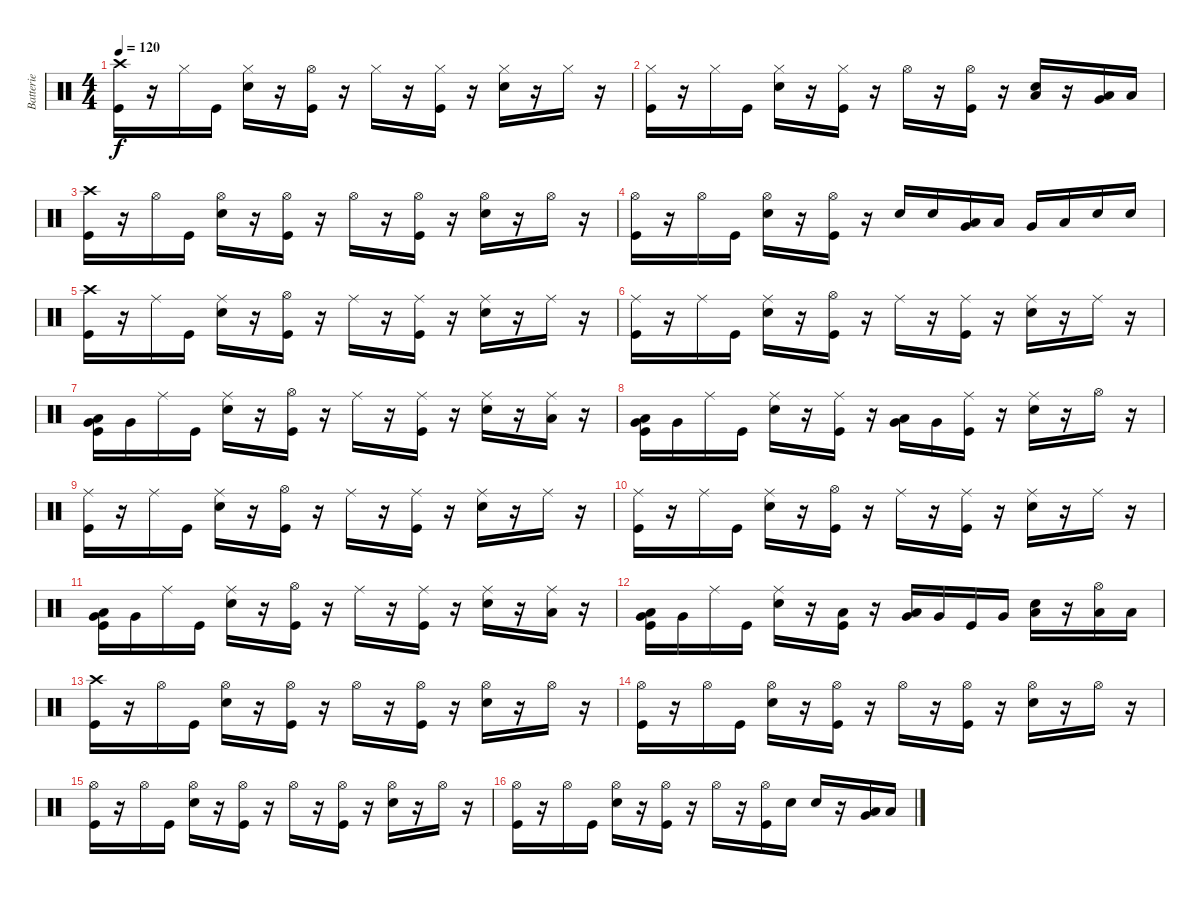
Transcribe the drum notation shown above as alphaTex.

\track ("Batterie" "Batterie") {instrument percussion}
\staff {score}
\articulation defaults
\ts (4 4)
\tempo 120
\clef neutral
\ks c
("Crash high (hit)" "Kick (hit)").16{dy f} r.16 "Hi-Hat (closed)".16 "Kick (hit)".16 ("Hi-Hat (closed)" "Electric Snare (hit)").16 r.16 ("Kick (hit)" "Hi-Hat (open)").16 r.16 "Hi-Hat (closed)".16 r.16 ("Hi-Hat (closed)" "Kick (hit)").16 r.16 ("Electric Snare (hit)" "Hi-Hat (closed)").16 r.16 "Hi-Hat (closed)".16 r.16 |
("Hi-Hat (closed)" "Kick (hit)").16 r.16 "Hi-Hat (closed)".16 "Kick (hit)".16 ("Electric Snare (hit)" "Hi-Hat (closed)").16 r.16 ("Hi-Hat (closed)" "Kick (hit)").16 r.16 "Hi-Hat (open)".16 r.16 ("Hi-Hat (open)" "Kick (hit)").16 r.16 ("Low Floor Tom (hit)" "Electric Snare (hit)").16 r.16 ("Very Low Tom (hit)" "Low Floor Tom (hit)").16 "Low Floor Tom (hit)".16 |
("Crash high (hit)" "Kick (hit)").16 r.16 "Hi-Hat (open)".16 "Kick (hit)".16 ("Hi-Hat (open)" "Electric Snare (hit)").16 r.16 ("Kick (hit)" "Hi-Hat (open)").16 r.16 "Hi-Hat (open)".16 r.16 ("Hi-Hat (open)" "Kick (hit)").16 r.16 ("Hi-Hat (open)" "Electric Snare (hit)").16 r.16 "Hi-Hat (open)".16 r.16 |
("Hi-Hat (open)" "Kick (hit)").16 r.16 "Hi-Hat (open)".16 "Kick (hit)".16 ("Hi-Hat (open)" "Electric Snare (hit)").16 r.16 ("Hi-Hat (open)" "Kick (hit)").16 r.16 "Electric Snare (hit)".16 "Electric Snare (hit)".16 ("Low Tom (hit)" "Very Low Tom (hit)").16 "Low Tom (hit)".16 "Very Low Tom (hit)".16 "Low Floor Tom (hit)".16 "Electric Snare (hit)".16 "Electric Snare (hit)".16 |
("Crash high (hit)" "Kick (hit)").16 r.16 "Ride (middle)".16 "Kick (hit)".16 ("Ride (middle)" "Electric Snare (hit)").16 r.16 ("Hi-Hat (open)" "Kick (hit)").16 r.16 "Ride (middle)".16 r.16 ("Kick (hit)" "Ride (middle)").16 r.16 ("Ride (middle)" "Electric Snare (hit)").16 r.16 "Ride (middle)".16 r.16 |
("Ride (middle)" "Kick (hit)").16 r.16 "Ride (middle)".16 "Kick (hit)".16 ("Ride (middle)" "Electric Snare (hit)").16 r.16 ("Hi-Hat (open)" "Kick (hit)").16 r.16 "Ride (middle)".16 r.16 ("Ride (middle)" "Kick (hit)").16 r.16 ("Ride (middle)" "Electric Snare (hit)").16 r.16 "Ride (middle)".16 r.16 |
("Very Low Tom (hit)" "Low Tom (hit)" "Kick (hit)").16 "Very Low Tom (hit)".16 "Ride (middle)".16 "Kick (hit)".16 ("Ride (middle)" "Electric Snare (hit)").16 r.16 ("Hi-Hat (open)" "Kick (hit)").16 r.16 "Ride (middle)".16 r.16 ("Ride (middle)" "Kick (hit)").16 r.16 ("Electric Snare (hit)" "Ride (middle)").16 r.16 ("Low Floor Tom (hit)" "Ride (middle)").16 r.16 |
("Very Low Tom (hit)" "Low Tom (hit)" "Kick (hit)").16 "Very Low Tom (hit)".16 "Ride (middle)".16 "Kick (hit)".16 ("Electric Snare (hit)" "Ride (middle)").16 r.16 ("Ride (middle)" "Kick (hit)").16 r.16 ("Very Low Tom (hit)" "Low Tom (hit)").16 "Very Low Tom (hit)".16 ("Kick (hit)" "Ride (middle)").16 r.16 ("Ride (middle)" "Electric Snare (hit)").16 r.16 "Hi-Hat (open)".16 r.16 |
("Ride (middle)" "Kick (hit)").16 r.16 "Ride (middle)".16 "Kick (hit)".16 ("Ride (middle)" "Electric Snare (hit)").16 r.16 ("Hi-Hat (open)" "Kick (hit)").16 r.16 "Ride (middle)".16 r.16 ("Kick (hit)" "Ride (middle)").16 r.16 ("Ride (middle)" "Electric Snare (hit)").16 r.16 "Ride (middle)".16 r.16 |
("Ride (middle)" "Kick (hit)").16 r.16 "Ride (middle)".16 "Kick (hit)".16 ("Ride (middle)" "Electric Snare (hit)").16 r.16 ("Hi-Hat (open)" "Kick (hit)").16 r.16 "Ride (middle)".16 r.16 ("Ride (middle)" "Kick (hit)").16 r.16 ("Ride (middle)" "Electric Snare (hit)").16 r.16 "Ride (middle)".16 r.16 |
("Very Low Tom (hit)" "Low Tom (hit)" "Kick (hit)").16 "Very Low Tom (hit)".16 "Ride (middle)".16 "Kick (hit)".16 ("Ride (middle)" "Electric Snare (hit)").16 r.16 ("Hi-Hat (open)" "Kick (hit)").16 r.16 "Ride (middle)".16 r.16 ("Ride (middle)" "Kick (hit)").16 r.16 ("Electric Snare (hit)" "Ride (middle)").16 r.16 ("Low Floor Tom (hit)" "Ride (middle)").16 r.16 |
("Very Low Tom (hit)" "Low Tom (hit)" "Kick (hit)").16 "Very Low Tom (hit)".16 "Ride (middle)".16 "Kick (hit)".16 ("Electric Snare (hit)" "Ride (middle)").16 r.16 ("Low Floor Tom (hit)" "Kick (hit)").16 r.16 ("Very Low Tom (hit)" "Low Tom (hit)").16 "Very Low Tom (hit)".16 "Kick (hit)".16 "Very Low Tom (hit)".16 ("Low Tom (hit)" "Electric Snare (hit)").16 r.16 ("Low Tom (hit)" "Hi-Hat (open)").16 "Low Tom (hit)".16 |
("Crash high (hit)" "Kick (hit)").16 r.16 "Hi-Hat (open)".16 "Kick (hit)".16 ("Electric Snare (hit)" "Hi-Hat (open)").16 r.16 ("Kick (hit)" "Hi-Hat (open)").16 r.16 "Hi-Hat (open)".16 r.16 ("Hi-Hat (open)" "Kick (hit)").16 r.16 ("Hi-Hat (open)" "Electric Snare (hit)").16 r.16 "Hi-Hat (open)".16 r.16 |
("Kick (hit)" "Hi-Hat (open)").16 r.16 "Hi-Hat (open)".16 "Kick (hit)".16 ("Electric Snare (hit)" "Hi-Hat (open)").16 r.16 ("Hi-Hat (open)" "Kick (hit)").16 r.16 "Hi-Hat (open)".16 r.16 ("Hi-Hat (open)" "Kick (hit)").16 r.16 ("Electric Snare (hit)" "Hi-Hat (open)").16 r.16 "Hi-Hat (open)".16 r.16 |
("Hi-Hat (open)" "Kick (hit)").16 r.16 "Hi-Hat (open)".16 "Kick (hit)".16 ("Electric Snare (hit)" "Hi-Hat (open)").16 r.16 ("Hi-Hat (open)" "Kick (hit)").16 r.16 "Hi-Hat (open)".16 r.16 ("Kick (hit)" "Hi-Hat (open)").16 r.16 ("Electric Snare (hit)" "Hi-Hat (open)").16 r.16 "Hi-Hat (open)".16 r.16 |
("Hi-Hat (open)" "Kick (hit)").16 r.16 "Hi-Hat (open)".16 "Kick (hit)".16 ("Electric Snare (hit)" "Hi-Hat (open)").16 r.16 ("Hi-Hat (open)" "Kick (hit)").16 r.16 "Hi-Hat (open)".16 r.16 ("Hi-Hat (open)" "Kick (hit)").16 "Electric Snare (hit)".16 "Electric Snare (hit)".16 r.16 ("Very Low Tom (hit)" "Low Floor Tom (hit)").16 "Low Floor Tom (hit)".16
